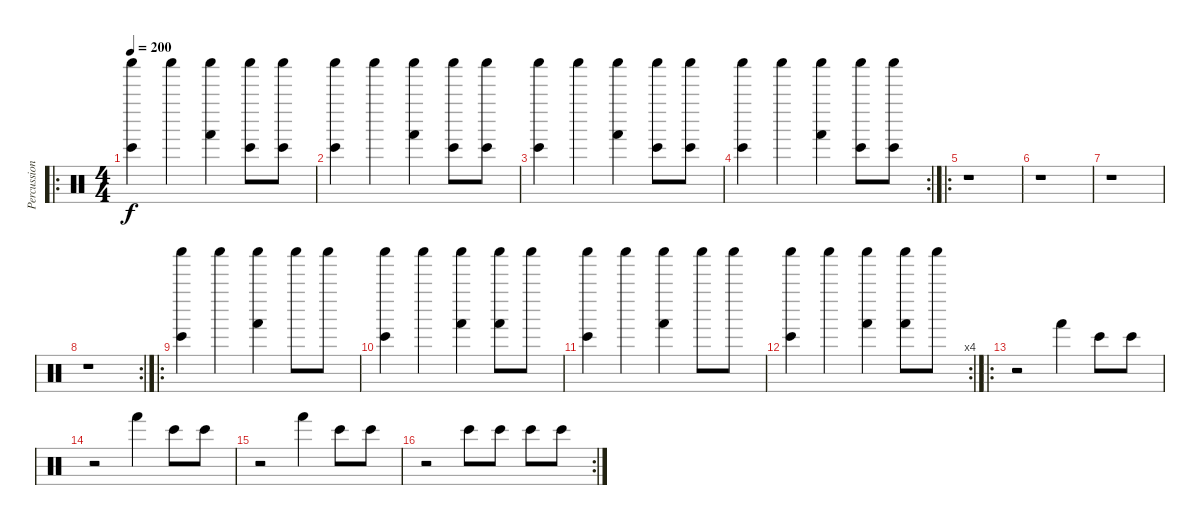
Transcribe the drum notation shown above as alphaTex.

\track ("Percussions" "Percussion") {instrument percussion}
\staff {score}
\articulation defaults
\ro
\ts (4 4)
\tempo 200
\clef neutral
\ks c
("Shaker (hit)" "Bongo High (hit)").4{dy f} "Shaker (hit)".4 ("Shaker (hit)" "Hand (hit)").4 ("Shaker (hit)" "Bongo High (hit)").8 ("Shaker (hit)" "Bongo High (hit)").8 |
("Shaker (hit)" "Bongo High (hit)").4 "Shaker (hit)".4 ("Shaker (hit)" "Hand (hit)").4 ("Shaker (hit)" "Bongo High (hit)").8 ("Shaker (hit)" "Bongo High (hit)").8 |
("Shaker (hit)" "Bongo High (hit)").4 "Shaker (hit)".4 ("Shaker (hit)" "Hand (hit)").4 ("Shaker (hit)" "Bongo High (hit)").8 ("Shaker (hit)" "Bongo High (hit)").8 |
\rc 2
("Shaker (hit)" "Bongo High (hit)").4 "Shaker (hit)".4 ("Shaker (hit)" "Hand (hit)").4 ("Shaker (hit)" "Bongo High (hit)").8 ("Shaker (hit)" "Bongo High (hit)").8 |
\ro
r.1 |
r.1 |
r.1 |
\rc 2
r.1 |
\ro
("Shaker (hit)" "Bongo High (hit)").4 "Shaker (hit)".4 ("Shaker (hit)" "Hand (hit)").4 "Shaker (hit)".8 "Shaker (hit)".8 |
("Shaker (hit)" "Bongo High (hit)").4 "Shaker (hit)".4 ("Shaker (hit)" "Hand (hit)").4 ("Shaker (hit)" "Hand (hit)").8 "Shaker (hit)".8 |
("Shaker (hit)" "Bongo High (hit)").4 "Shaker (hit)".4 ("Shaker (hit)" "Hand (hit)").4 "Shaker (hit)".8 "Shaker (hit)".8 |
\rc 4
("Shaker (hit)" "Bongo High (hit)").4 "Shaker (hit)".4 ("Shaker (hit)" "Hand (hit)").4 ("Shaker (hit)" "Hand (hit)").8 "Shaker (hit)".8 |
\ro
r.2 "Hand (hit)".4 "Bongo High (hit)".8 "Bongo High (hit)".8 |
r.2 "Hand (hit)".4 "Bongo High (hit)".8 "Bongo High (hit)".8 |
r.2 "Hand (hit)".4 "Bongo High (hit)".8 "Bongo High (hit)".8 |
\rc 2
r.2 "Bongo High (hit)".8 "Bongo High (hit)".8 "Bongo High (hit)".8 "Bongo High (hit)".8
